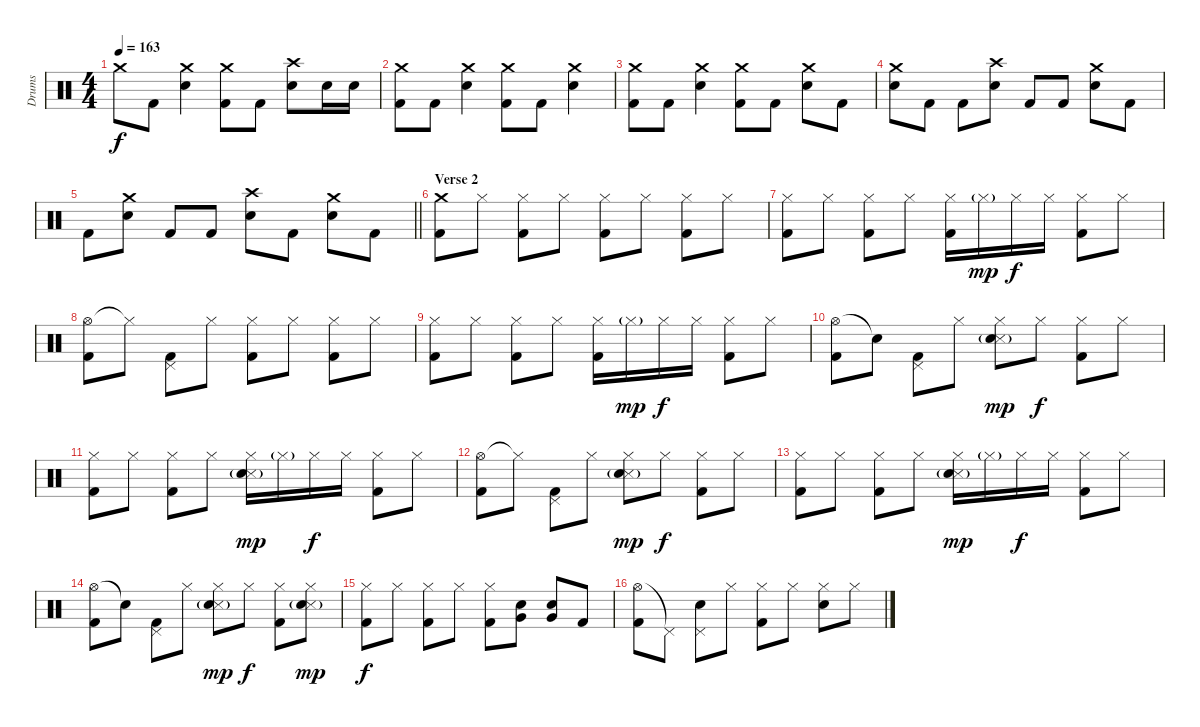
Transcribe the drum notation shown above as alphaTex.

\track ("Drums" "Drums") {instrument percussion}
\staff {score}
\articulation defaults
\ts (4 4)
\tempo 163
\clef neutral
\ks c "Crash medium (hit)".8{dy f} "Kick (hit) 2".8
("Crash medium (hit)" "Electric Snare (hit)").4 ("Crash medium (hit)" "Kick (hit) 2").8 "Kick (hit) 2".8 ("Crash high (hit)" "Electric Snare (hit)").8 "Electric Snare (hit)".16 "Electric Snare (hit)".16 |
("Crash medium (hit)" "Kick (hit) 2").8 "Kick (hit) 2".8 ("Crash medium (hit)" "Electric Snare (hit)").4 ("Crash medium (hit)" "Kick (hit) 2").8 "Kick (hit) 2".8 ("Crash medium (hit)" "Electric Snare (hit)").4 |
("Crash medium (hit)" "Kick (hit) 2").8 "Kick (hit) 2".8 ("Crash medium (hit)" "Electric Snare (hit)").4 ("Crash medium (hit)" "Kick (hit) 2").8 "Kick (hit) 2".8 ("Crash medium (hit)" "Electric Snare (hit)").8 "Kick (hit) 2".8 |
("Crash medium (hit)" "Electric Snare (hit)").8 "Kick (hit) 2".8 "Kick (hit) 2".8 ("Crash high (hit)" "Electric Snare (hit)").8 "Kick (hit) 2".8 "Kick (hit) 2".8 ("Crash medium (hit)" "Electric Snare (hit)").8 "Kick (hit) 2".8 |
\barLineRight lightlight "Kick (hit) 2".8
("Crash medium (hit)" "Electric Snare (hit)").8 "Kick (hit) 2".8 "Kick (hit) 2".8 ("Crash high (hit)" "Electric Snare (hit)").8 "Kick (hit) 2".8 ("Crash medium (hit)" "Electric Snare (hit)").8 "Kick (hit) 2".8 |
\section ("" "Verse 2")
("Crash medium (hit)" "Kick (hit) 2").8 "Hi-Hat (closed)".8 ("Hi-Hat (closed)" "Kick (hit) 2").8 "Hi-Hat (closed)".8 ("Hi-Hat (closed)" "Kick (hit) 2").8 "Hi-Hat (closed)".8 ("Hi-Hat (closed)" "Kick (hit) 2").8 "Hi-Hat (closed)".8 |
("Hi-Hat (closed)" "Kick (hit) 2").8 "Hi-Hat (closed)".8 ("Hi-Hat (closed)" "Kick (hit) 2").8 "Hi-Hat (closed)".8 ("Hi-Hat (closed)" "Kick (hit) 2").16 "Hi-Hat (closed)"{g}.16{dy mp} "Hi-Hat (closed)".16{dy f} "Hi-Hat (closed)".16 ("Hi-Hat (closed)" "Kick (hit) 2").8 "Hi-Hat (closed)".8 |
("Hi-Hat (open)" "Kick (hit) 2").8 "Hi-Hat (closed)"{t}.8 ("Pedal Hi-Hat (hit)" "Kick (hit) 2").8 "Hi-Hat (closed)".8 ("Hi-Hat (closed)" "Kick (hit) 2").8 "Hi-Hat (closed)".8 ("Hi-Hat (closed)" "Kick (hit) 2").8 "Hi-Hat (closed)".8 |
("Hi-Hat (closed)" "Kick (hit) 2").8 "Hi-Hat (closed)".8 ("Hi-Hat (closed)" "Kick (hit) 2").8 "Hi-Hat (closed)".8 ("Hi-Hat (closed)" "Kick (hit) 2").16 "Hi-Hat (closed)"{g}.16{dy mp} "Hi-Hat (closed)".16{dy f} "Hi-Hat (closed)".16 ("Hi-Hat (closed)" "Kick (hit) 2").8 "Hi-Hat (closed)".8 |
("Hi-Hat (open)" "Kick (hit) 2").8 "Snare (hit)"{t}.8 ("Pedal Hi-Hat (hit)" "Kick (hit) 2").8 "Hi-Hat (closed)".8 ("Hi-Hat (closed)" "Snare (side stick) 3" "Electric Snare (hit)"{g}).8{dy mp} "Hi-Hat (closed)".8{dy f} ("Hi-Hat (closed)" "Kick (hit) 2").8 "Hi-Hat (closed)".8 |
("Hi-Hat (closed)" "Kick (hit) 2").8 "Hi-Hat (closed)".8 ("Hi-Hat (closed)" "Kick (hit) 2").8 "Hi-Hat (closed)".8 ("Hi-Hat (closed)" "Snare (side stick) 3" "Electric Snare (hit)"{g}).16{dy mp} "Hi-Hat (closed)"{g}.16 "Hi-Hat (closed)".16{dy f} "Hi-Hat (closed)".16 ("Hi-Hat (closed)" "Kick (hit) 2").8 "Hi-Hat (closed)".8 |
("Hi-Hat (open)" "Kick (hit) 2").8 "Hi-Hat (closed)"{t}.8 ("Pedal Hi-Hat (hit)" "Kick (hit) 2").8 "Hi-Hat (closed)".8 ("Hi-Hat (closed)" "Snare (side stick) 3" "Electric Snare (hit)"{g}).8{dy mp} "Hi-Hat (closed)".8{dy f} ("Hi-Hat (closed)" "Kick (hit) 2").8 "Hi-Hat (closed)".8 |
("Hi-Hat (closed)" "Kick (hit) 2").8 "Hi-Hat (closed)".8 ("Hi-Hat (closed)" "Kick (hit) 2").8 "Hi-Hat (closed)".8 ("Hi-Hat (closed)" "Snare (side stick) 3" "Electric Snare (hit)"{g}).16{dy mp} "Hi-Hat (closed)"{g}.16 "Hi-Hat (closed)".16{dy f} "Hi-Hat (closed)".16 ("Hi-Hat (closed)" "Kick (hit) 2").8 "Hi-Hat (closed)".8 |
("Hi-Hat (open)" "Kick (hit) 2").8 "Snare (hit)"{t}.8 ("Pedal Hi-Hat (hit)" "Kick (hit) 2").8 "Hi-Hat (closed)".8 ("Hi-Hat (closed)" "Snare (side stick) 3" "Electric Snare (hit)"{g}).8{dy mp} "Hi-Hat (closed)".8{dy f} ("Hi-Hat (closed)" "Kick (hit) 2").8 ("Hi-Hat (closed)" "Snare (side stick) 3" "Electric Snare (hit)"{g}).8{dy mp} |
("Hi-Hat (closed)" "Kick (hit) 2").8{dy f} "Hi-Hat (closed)".8 ("Hi-Hat (closed)" "Kick (hit) 2").8 "Hi-Hat (closed)".8 ("Hi-Hat (closed)" "Kick (hit) 2").8 ("Very Low Tom (hit)" "Electric Snare (hit)").8 ("Very Low Tom (hit)" "Electric Snare (hit)").8 "Kick (hit) 2".8 |
("Hi-Hat (open)" "Kick (hit) 2").8 "Pedal Hi-Hat (hit)"{t}.8 ("Pedal Hi-Hat (hit)" "Electric Snare (hit)").8 "Hi-Hat (closed)".8 ("Hi-Hat (closed)" "Kick (hit) 2").8 "Hi-Hat (closed)".8 ("Hi-Hat (closed)" "Electric Snare (hit)").8 "Hi-Hat (closed)".8
